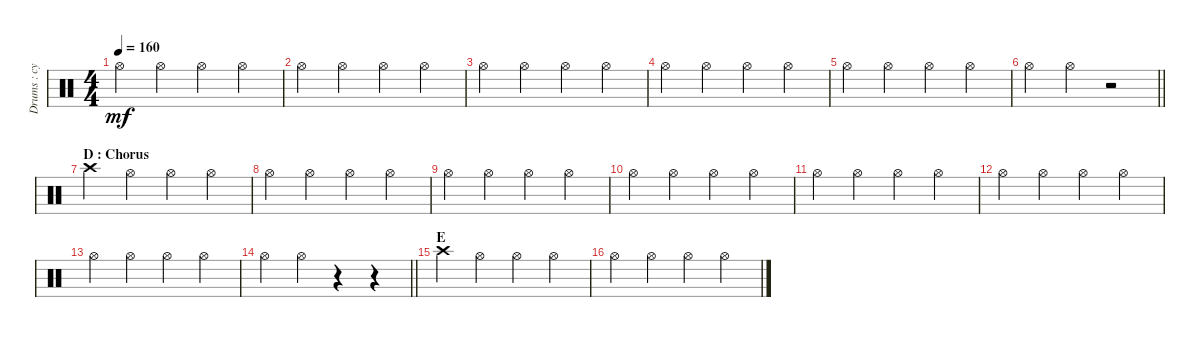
\track ("Drums : cymbals" "Drums : cy") {instrument percussion}
\staff {score}
\articulation defaults
\ts (4 4)
\tempo 160
\clef neutral
\ks c "Hi-Hat (open)".4{dy mf} "Hi-Hat (open)".4 "Hi-Hat (open)".4 "Hi-Hat (open)".4
|
"Hi-Hat (open)".4 "Hi-Hat (open)".4 "Hi-Hat (open)".4 "Hi-Hat (open)".4 |
"Hi-Hat (open)".4 "Hi-Hat (open)".4 "Hi-Hat (open)".4 "Hi-Hat (open)".4 |
"Hi-Hat (open)".4 "Hi-Hat (open)".4 "Hi-Hat (open)".4 "Hi-Hat (open)".4 |
"Hi-Hat (open)".4 "Hi-Hat (open)".4 "Hi-Hat (open)".4 "Hi-Hat (open)".4 |
\barLineRight lightlight "Hi-Hat (open)".4 "Hi-Hat (open)".4
r.2 |
\section ("" "D : Chorus")
"Crash high (hit)".4 "Hi-Hat (open)".4 "Hi-Hat (open)".4 "Hi-Hat (open)".4 |
"Hi-Hat (open)".4 "Hi-Hat (open)".4 "Hi-Hat (open)".4 "Hi-Hat (open)".4 |
"Hi-Hat (open)".4 "Hi-Hat (open)".4 "Hi-Hat (open)".4 "Hi-Hat (open)".4 |
"Hi-Hat (open)".4 "Hi-Hat (open)".4 "Hi-Hat (open)".4 "Hi-Hat (open)".4 |
"Hi-Hat (open)".4 "Hi-Hat (open)".4 "Hi-Hat (open)".4 "Hi-Hat (open)".4 |
"Hi-Hat (open)".4 "Hi-Hat (open)".4 "Hi-Hat (open)".4 "Hi-Hat (open)".4 |
"Hi-Hat (open)".4 "Hi-Hat (open)".4 "Hi-Hat (open)".4 "Hi-Hat (open)".4 |
\barLineRight lightlight "Hi-Hat (open)".4 "Hi-Hat (open)".4
r.4 r.4 |
\section ("" "E")
"Crash high (hit)".4 "Hi-Hat (open)".4 "Hi-Hat (open)".4 "Hi-Hat (open)".4 |
"Hi-Hat (open)".4 "Hi-Hat (open)".4 "Hi-Hat (open)".4 "Hi-Hat (open)".4
